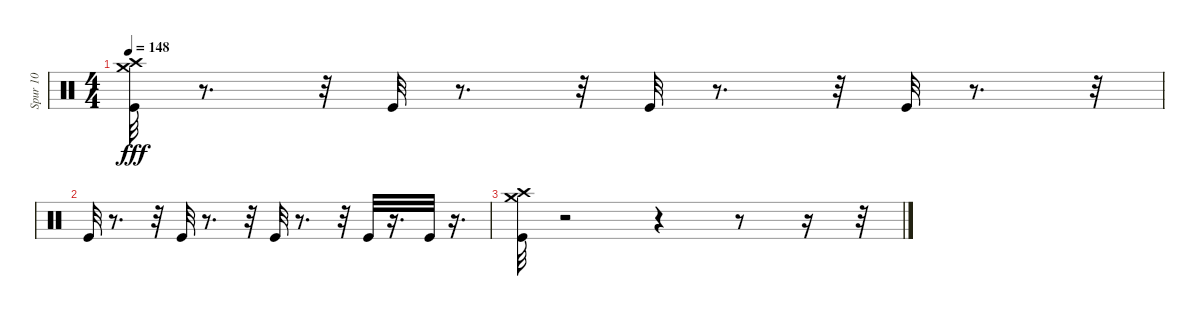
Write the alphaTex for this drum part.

\track ("Spur 10" "Spur 10") {instrument percussion}
\staff {score}
\articulation defaults
\ts (4 4)
\tempo 148
\clef neutral
\ks c
("Kick (hit)" "Crash high (hit)" "Crash medium (hit)").32{dy fff} r.8{d} r.32 "Kick (hit)".32 r.8{d} r.32 "Kick (hit)".32 r.8{d} r.32 "Kick (hit)".32 r.8{d} r.32 |
"Kick (hit)".32 r.8{d} r.32 "Kick (hit)".32 r.8{d} r.32 "Kick (hit)".32 r.8{d} r.32 "Kick (hit)".32 r.16{d} "Kick (hit)".32 r.16{d} |
("Kick (hit)" "Crash high (hit)" "Crash medium (hit)").32 r.2 r.4 r.8 r.16 r.32
